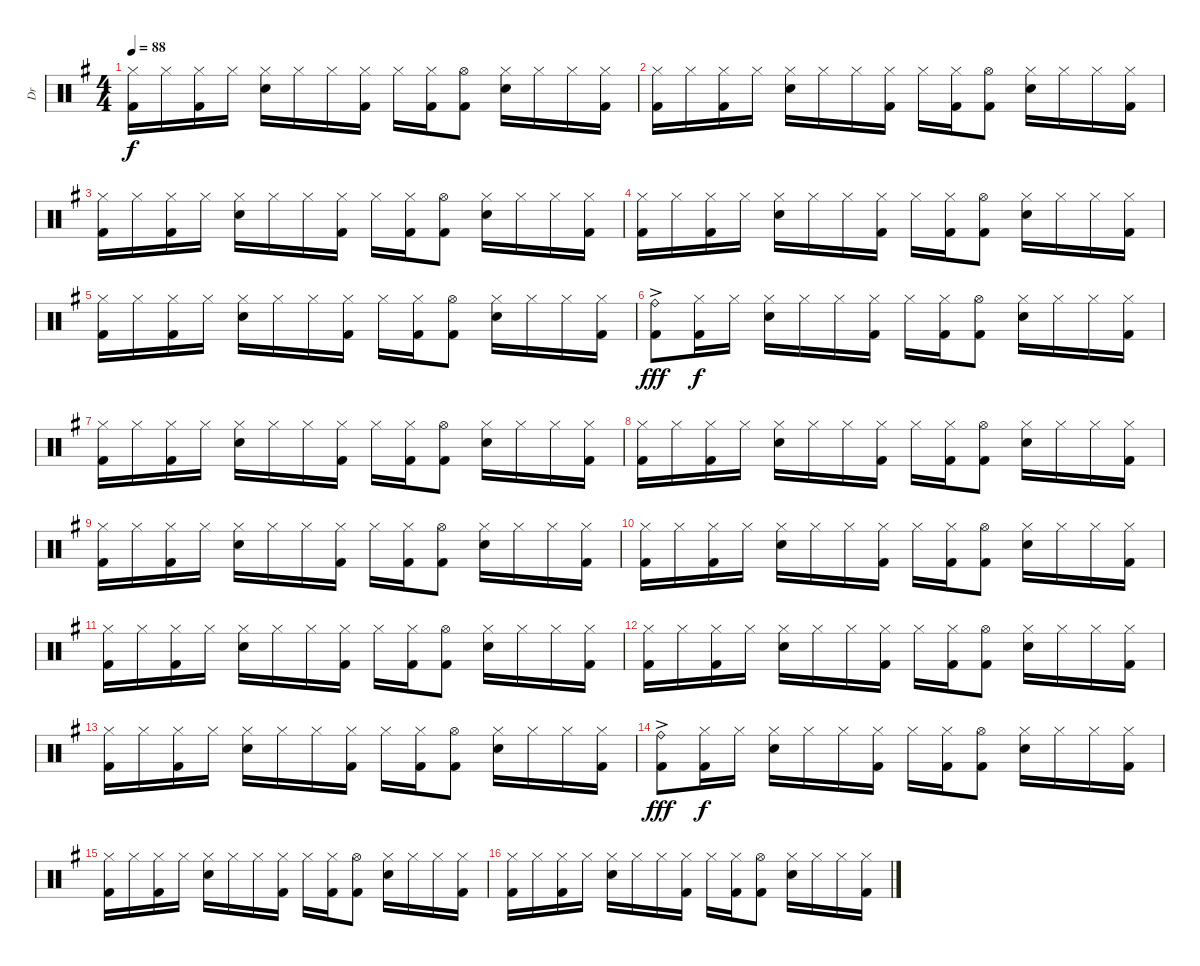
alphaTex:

\track ("Dr" "Dr") {instrument percussion}
\staff {score}
\articulation defaults
\ts (4 4)
\tempo 88
\clef neutral
\ks g
("Hi-Hat (closed)" "Kick (hit) 2").16{dy f} "Hi-Hat (closed)".16 ("Hi-Hat (closed)" "Kick (hit) 2").16 "Hi-Hat (closed)".16 ("Hi-Hat (closed)" "Electric Snare (hit)").16 "Hi-Hat (closed)".16 "Hi-Hat (closed)".16 ("Hi-Hat (closed)" "Kick (hit) 2").16 "Hi-Hat (closed)".16 ("Hi-Hat (closed)" "Kick (hit) 2").16 ("Hi-Hat (open)" "Kick (hit) 2").8 ("Hi-Hat (closed)" "Electric Snare (hit)").16 "Hi-Hat (closed)".16 "Hi-Hat (closed)".16 ("Hi-Hat (closed)" "Kick (hit) 2").16 |
("Hi-Hat (closed)" "Kick (hit) 2").16 "Hi-Hat (closed)".16 ("Hi-Hat (closed)" "Kick (hit) 2").16 "Hi-Hat (closed)".16 ("Hi-Hat (closed)" "Electric Snare (hit)").16 "Hi-Hat (closed)".16 "Hi-Hat (closed)".16 ("Hi-Hat (closed)" "Kick (hit) 2").16 "Hi-Hat (closed)".16 ("Hi-Hat (closed)" "Kick (hit) 2").16 ("Hi-Hat (open)" "Kick (hit) 2").8 ("Hi-Hat (closed)" "Electric Snare (hit)").16 "Hi-Hat (closed)".16 "Hi-Hat (closed)".16 ("Hi-Hat (closed)" "Kick (hit) 2").16 |
("Hi-Hat (closed)" "Kick (hit) 2").16 "Hi-Hat (closed)".16 ("Hi-Hat (closed)" "Kick (hit) 2").16 "Hi-Hat (closed)".16 ("Hi-Hat (closed)" "Electric Snare (hit)").16 "Hi-Hat (closed)".16 "Hi-Hat (closed)".16 ("Hi-Hat (closed)" "Kick (hit) 2").16 "Hi-Hat (closed)".16 ("Hi-Hat (closed)" "Kick (hit) 2").16 ("Hi-Hat (open)" "Kick (hit) 2").8 ("Hi-Hat (closed)" "Electric Snare (hit)").16 "Hi-Hat (closed)".16 "Hi-Hat (closed)".16 ("Hi-Hat (closed)" "Kick (hit) 2").16 |
("Hi-Hat (closed)" "Kick (hit) 2").16 "Hi-Hat (closed)".16 ("Hi-Hat (closed)" "Kick (hit) 2").16 "Hi-Hat (closed)".16 ("Hi-Hat (closed)" "Electric Snare (hit)").16 "Hi-Hat (closed)".16 "Hi-Hat (closed)".16 ("Hi-Hat (closed)" "Kick (hit) 2").16 "Hi-Hat (closed)".16 ("Hi-Hat (closed)" "Kick (hit) 2").16 ("Hi-Hat (open)" "Kick (hit) 2").8 ("Hi-Hat (closed)" "Electric Snare (hit)").16 "Hi-Hat (closed)".16 "Hi-Hat (closed)".16 ("Hi-Hat (closed)" "Kick (hit) 2").16 |
("Hi-Hat (closed)" "Kick (hit) 2").16 "Hi-Hat (closed)".16 ("Hi-Hat (closed)" "Kick (hit) 2").16 "Hi-Hat (closed)".16 ("Hi-Hat (closed)" "Electric Snare (hit)").16 "Hi-Hat (closed)".16 "Hi-Hat (closed)".16 ("Hi-Hat (closed)" "Kick (hit) 2").16 "Hi-Hat (closed)".16 ("Hi-Hat (closed)" "Kick (hit) 2").16 ("Hi-Hat (open)" "Kick (hit) 2").8 ("Hi-Hat (closed)" "Electric Snare (hit)").16 "Hi-Hat (closed)".16 "Hi-Hat (closed)".16 ("Hi-Hat (closed)" "Kick (hit) 2").16 |
("Ride (bell)"{ac} "Kick (hit) 2"{ac}).8{dy fff} ("Hi-Hat (closed)" "Kick (hit) 2").16{dy f} "Hi-Hat (closed)".16 ("Hi-Hat (closed)" "Electric Snare (hit)").16 "Hi-Hat (closed)".16 "Hi-Hat (closed)".16 ("Hi-Hat (closed)" "Kick (hit) 2").16 "Hi-Hat (closed)".16 ("Hi-Hat (closed)" "Kick (hit) 2").16 ("Hi-Hat (open)" "Kick (hit) 2").8 ("Hi-Hat (closed)" "Electric Snare (hit)").16 "Hi-Hat (closed)".16 "Hi-Hat (closed)".16 ("Hi-Hat (closed)" "Kick (hit) 2").16 |
("Hi-Hat (closed)" "Kick (hit) 2").16 "Hi-Hat (closed)".16 ("Hi-Hat (closed)" "Kick (hit) 2").16 "Hi-Hat (closed)".16 ("Hi-Hat (closed)" "Electric Snare (hit)").16 "Hi-Hat (closed)".16 "Hi-Hat (closed)".16 ("Hi-Hat (closed)" "Kick (hit) 2").16 "Hi-Hat (closed)".16 ("Hi-Hat (closed)" "Kick (hit) 2").16 ("Hi-Hat (open)" "Kick (hit) 2").8 ("Hi-Hat (closed)" "Electric Snare (hit)").16 "Hi-Hat (closed)".16 "Hi-Hat (closed)".16 ("Hi-Hat (closed)" "Kick (hit) 2").16 |
("Hi-Hat (closed)" "Kick (hit) 2").16 "Hi-Hat (closed)".16 ("Hi-Hat (closed)" "Kick (hit) 2").16 "Hi-Hat (closed)".16 ("Hi-Hat (closed)" "Electric Snare (hit)").16 "Hi-Hat (closed)".16 "Hi-Hat (closed)".16 ("Hi-Hat (closed)" "Kick (hit) 2").16 "Hi-Hat (closed)".16 ("Hi-Hat (closed)" "Kick (hit) 2").16 ("Hi-Hat (open)" "Kick (hit) 2").8 ("Hi-Hat (closed)" "Electric Snare (hit)").16 "Hi-Hat (closed)".16 "Hi-Hat (closed)".16 ("Hi-Hat (closed)" "Kick (hit) 2").16 |
("Hi-Hat (closed)" "Kick (hit) 2").16 "Hi-Hat (closed)".16 ("Hi-Hat (closed)" "Kick (hit) 2").16 "Hi-Hat (closed)".16 ("Hi-Hat (closed)" "Electric Snare (hit)").16 "Hi-Hat (closed)".16 "Hi-Hat (closed)".16 ("Hi-Hat (closed)" "Kick (hit) 2").16 "Hi-Hat (closed)".16 ("Hi-Hat (closed)" "Kick (hit) 2").16 ("Hi-Hat (open)" "Kick (hit) 2").8 ("Hi-Hat (closed)" "Electric Snare (hit)").16 "Hi-Hat (closed)".16 "Hi-Hat (closed)".16 ("Hi-Hat (closed)" "Kick (hit) 2").16 |
("Hi-Hat (closed)" "Kick (hit) 2").16 "Hi-Hat (closed)".16 ("Hi-Hat (closed)" "Kick (hit) 2").16 "Hi-Hat (closed)".16 ("Hi-Hat (closed)" "Electric Snare (hit)").16 "Hi-Hat (closed)".16 "Hi-Hat (closed)".16 ("Hi-Hat (closed)" "Kick (hit) 2").16 "Hi-Hat (closed)".16 ("Hi-Hat (closed)" "Kick (hit) 2").16 ("Hi-Hat (open)" "Kick (hit) 2").8 ("Hi-Hat (closed)" "Electric Snare (hit)").16 "Hi-Hat (closed)".16 "Hi-Hat (closed)".16 ("Hi-Hat (closed)" "Kick (hit) 2").16 |
("Hi-Hat (closed)" "Kick (hit) 2").16 "Hi-Hat (closed)".16 ("Hi-Hat (closed)" "Kick (hit) 2").16 "Hi-Hat (closed)".16 ("Hi-Hat (closed)" "Electric Snare (hit)").16 "Hi-Hat (closed)".16 "Hi-Hat (closed)".16 ("Hi-Hat (closed)" "Kick (hit) 2").16 "Hi-Hat (closed)".16 ("Hi-Hat (closed)" "Kick (hit) 2").16 ("Hi-Hat (open)" "Kick (hit) 2").8 ("Hi-Hat (closed)" "Electric Snare (hit)").16 "Hi-Hat (closed)".16 "Hi-Hat (closed)".16 ("Hi-Hat (closed)" "Kick (hit) 2").16 |
("Hi-Hat (closed)" "Kick (hit) 2").16 "Hi-Hat (closed)".16 ("Hi-Hat (closed)" "Kick (hit) 2").16 "Hi-Hat (closed)".16 ("Hi-Hat (closed)" "Electric Snare (hit)").16 "Hi-Hat (closed)".16 "Hi-Hat (closed)".16 ("Hi-Hat (closed)" "Kick (hit) 2").16 "Hi-Hat (closed)".16 ("Hi-Hat (closed)" "Kick (hit) 2").16 ("Hi-Hat (open)" "Kick (hit) 2").8 ("Hi-Hat (closed)" "Electric Snare (hit)").16 "Hi-Hat (closed)".16 "Hi-Hat (closed)".16 ("Hi-Hat (closed)" "Kick (hit) 2").16 |
("Hi-Hat (closed)" "Kick (hit) 2").16 "Hi-Hat (closed)".16 ("Hi-Hat (closed)" "Kick (hit) 2").16 "Hi-Hat (closed)".16 ("Hi-Hat (closed)" "Electric Snare (hit)").16 "Hi-Hat (closed)".16 "Hi-Hat (closed)".16 ("Hi-Hat (closed)" "Kick (hit) 2").16 "Hi-Hat (closed)".16 ("Hi-Hat (closed)" "Kick (hit) 2").16 ("Hi-Hat (open)" "Kick (hit) 2").8 ("Hi-Hat (closed)" "Electric Snare (hit)").16 "Hi-Hat (closed)".16 "Hi-Hat (closed)".16 ("Hi-Hat (closed)" "Kick (hit) 2").16 |
("Ride (bell)"{ac} "Kick (hit) 2"{ac}).8{dy fff} ("Hi-Hat (closed)" "Kick (hit) 2").16{dy f} "Hi-Hat (closed)".16 ("Hi-Hat (closed)" "Electric Snare (hit)").16 "Hi-Hat (closed)".16 "Hi-Hat (closed)".16 ("Hi-Hat (closed)" "Kick (hit) 2").16 "Hi-Hat (closed)".16 ("Hi-Hat (closed)" "Kick (hit) 2").16 ("Hi-Hat (open)" "Kick (hit) 2").8 ("Hi-Hat (closed)" "Electric Snare (hit)").16 "Hi-Hat (closed)".16 "Hi-Hat (closed)".16 ("Hi-Hat (closed)" "Kick (hit) 2").16 |
("Hi-Hat (closed)" "Kick (hit) 2").16 "Hi-Hat (closed)".16 ("Hi-Hat (closed)" "Kick (hit) 2").16 "Hi-Hat (closed)".16 ("Hi-Hat (closed)" "Electric Snare (hit)").16 "Hi-Hat (closed)".16 "Hi-Hat (closed)".16 ("Hi-Hat (closed)" "Kick (hit) 2").16 "Hi-Hat (closed)".16 ("Hi-Hat (closed)" "Kick (hit) 2").16 ("Hi-Hat (open)" "Kick (hit) 2").8 ("Hi-Hat (closed)" "Electric Snare (hit)").16 "Hi-Hat (closed)".16 "Hi-Hat (closed)".16 ("Hi-Hat (closed)" "Kick (hit) 2").16 |
("Hi-Hat (closed)" "Kick (hit) 2").16 "Hi-Hat (closed)".16 ("Hi-Hat (closed)" "Kick (hit) 2").16 "Hi-Hat (closed)".16 ("Hi-Hat (closed)" "Electric Snare (hit)").16 "Hi-Hat (closed)".16 "Hi-Hat (closed)".16 ("Hi-Hat (closed)" "Kick (hit) 2").16 "Hi-Hat (closed)".16 ("Hi-Hat (closed)" "Kick (hit) 2").16 ("Hi-Hat (open)" "Kick (hit) 2").8 ("Hi-Hat (closed)" "Electric Snare (hit)").16 "Hi-Hat (closed)".16 "Hi-Hat (closed)".16 ("Hi-Hat (closed)" "Kick (hit) 2").16
